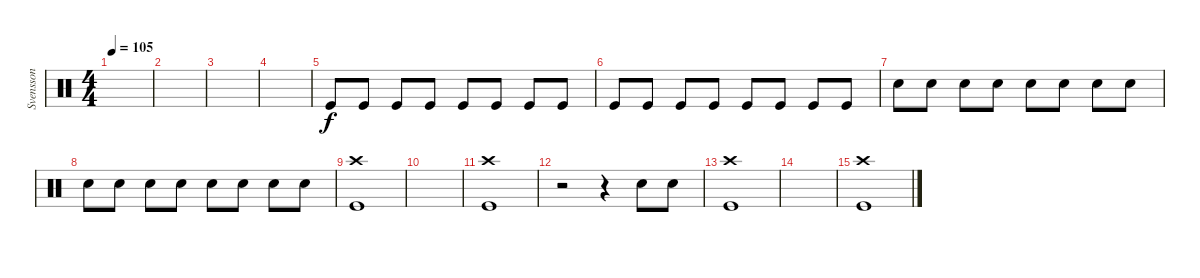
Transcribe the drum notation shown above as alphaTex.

\track ("Svensson" "Svensson") {instrument percussion}
\staff {score}
\articulation defaults
\ts (4 4)
\tempo 105
\clef neutral
\ks c
|
|
|
|
"Kick (hit)".8 "Kick (hit)".8 "Kick (hit)".8 "Kick (hit)".8 "Kick (hit)".8 "Kick (hit)".8 "Kick (hit)".8 "Kick (hit)".8 |
"Kick (hit)".8 "Kick (hit)".8 "Kick (hit)".8 "Kick (hit)".8 "Kick (hit)".8 "Kick (hit)".8 "Kick (hit)".8 "Kick (hit)".8 |
"Snare (hit) 2".8 "Snare (hit) 2".8 "Snare (hit) 2".8 "Snare (hit) 2".8 "Snare (hit) 2".8 "Snare (hit) 2".8 "Snare (hit) 2".8 "Snare (hit) 2".8 |
"Snare (hit) 2".8 "Snare (hit) 2".8 "Snare (hit) 2".8 "Snare (hit) 2".8 "Snare (hit) 2".8 "Snare (hit) 2".8 "Snare (hit) 2".8 "Snare (hit) 2".8 |
("Crash high (hit)" "Kick (hit)").1 |
|
("Crash high (hit)" "Kick (hit)").1 |
r.2 r.4 "Snare (hit) 2".8 "Snare (hit) 2".8 |
("Crash high (hit)" "Kick (hit)").1 |
|
("Crash high (hit)" "Kick (hit)").1
